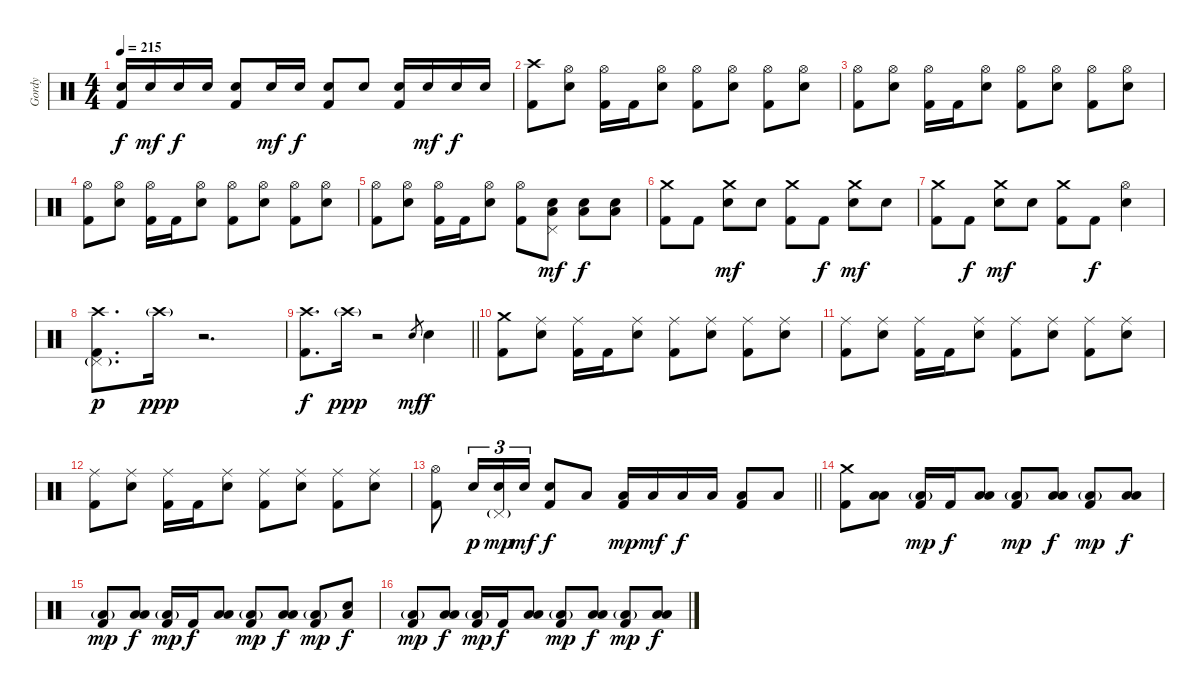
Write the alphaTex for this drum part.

\track ("Gordy" "Gordy") {instrument percussion}
\staff {score}
\articulation defaults
\ts (4 4)
\tempo 215
\clef neutral
\ks c
("Electric Snare (hit)" "Kick (hit) 2").16{dy f} "Electric Snare (hit)".16{dy mf} "Electric Snare (hit)".16{dy f} "Electric Snare (hit)".16 ("Electric Snare (hit)" "Kick (hit) 2").8 "Electric Snare (hit)".16{dy mf} "Electric Snare (hit)".16{dy f} ("Electric Snare (hit)" "Kick (hit) 2").8 "Electric Snare (hit)".8 ("Electric Snare (hit)" "Kick (hit) 2").16 "Electric Snare (hit)".16{dy mf} "Electric Snare (hit)".16{dy f} "Electric Snare (hit)".16 |
("Crash high (hit)" "Kick (hit) 2").8 ("Hi-Hat (open)" "Electric Snare (hit)").8 ("Hi-Hat (open)" "Kick (hit) 2").16 "Kick (hit) 2".16 ("Hi-Hat (open)" "Electric Snare (hit)").8 ("Hi-Hat (open)" "Kick (hit) 2").8 ("Hi-Hat (open)" "Electric Snare (hit)").8 ("Hi-Hat (open)" "Kick (hit) 2").8 ("Hi-Hat (open)" "Electric Snare (hit)").8 |
("Hi-Hat (open)" "Kick (hit) 2").8 ("Hi-Hat (open)" "Electric Snare (hit)").8 ("Hi-Hat (open)" "Kick (hit) 2").16 "Kick (hit) 2".16 ("Hi-Hat (open)" "Electric Snare (hit)").8 ("Hi-Hat (open)" "Kick (hit) 2").8 ("Hi-Hat (open)" "Electric Snare (hit)").8 ("Hi-Hat (open)" "Kick (hit) 2").8 ("Hi-Hat (open)" "Electric Snare (hit)").8 |
("Hi-Hat (open)" "Kick (hit) 2").8 ("Hi-Hat (open)" "Electric Snare (hit)").8 ("Hi-Hat (open)" "Kick (hit) 2").16 "Kick (hit) 2".16 ("Hi-Hat (open)" "Electric Snare (hit)").8 ("Hi-Hat (open)" "Kick (hit) 2").8 ("Hi-Hat (open)" "Electric Snare (hit)").8 ("Hi-Hat (open)" "Kick (hit) 2").8 ("Hi-Hat (open)" "Electric Snare (hit)").8 |
("Hi-Hat (open)" "Kick (hit) 2").8 ("Hi-Hat (open)" "Electric Snare (hit)").8 ("Hi-Hat (open)" "Kick (hit) 2").16 "Kick (hit) 2".16 ("Hi-Hat (open)" "Electric Snare (hit)").8 ("Hi-Hat (open)" "Kick (hit) 2").8 ("Pedal Hi-Hat (hit)" "Electric Snare (hit)" "Low Floor Tom (hit)").8{dy mf} ("Electric Snare (hit)" "Low Floor Tom (hit)").8{dy f} ("Electric Snare (hit)" "Low Floor Tom (hit)").8 |
("Crash medium (hit)" "Kick (hit) 2").8 "Kick (hit) 2".8 ("Crash medium (hit)" "Electric Snare (hit)").8{dy mf} "Electric Snare (hit)".8 ("Crash medium (hit)" "Kick (hit) 2").8 "Kick (hit) 2".8{dy f} ("Crash medium (hit)" "Electric Snare (hit)").8{dy mf} "Electric Snare (hit)".8 |
("Crash medium (hit)" "Kick (hit) 2").8 "Kick (hit) 2".8{dy f} ("Crash medium (hit)" "Electric Snare (hit)").8{dy mf} "Electric Snare (hit)".8 ("Crash medium (hit)" "Kick (hit) 2").8 "Kick (hit) 2".8{dy f} ("Hi-Hat (open)" "Electric Snare (hit)").4 |
("Pedal Hi-Hat (hit)"{g} "Crash high (hit)" "Kick (hit) 2").8{d dy p} "Crash high (hit)"{g}.16{dy ppp} r.2{d} |
\barLineRight lightlight
("Crash high (hit)" "Kick (hit) 2").8{d dy f} "Crash high (hit)"{g}.16{dy ppp} r.2 "Electric Snare (hit)".8{gr dy mf} "Electric Snare (hit)".4{dy f} |
\section ("" "")
("Crash medium (hit)" "Kick (hit) 2").8 ("Ride (middle)" "Electric Snare (hit)").8 ("Ride (middle)" "Kick (hit) 2").16 "Kick (hit) 2".16 ("Ride (middle)" "Electric Snare (hit)").8 ("Ride (middle)" "Kick (hit) 2").8 ("Ride (middle)" "Electric Snare (hit)").8 ("Ride (middle)" "Kick (hit) 2").8 ("Ride (middle)" "Electric Snare (hit)").8 |
("Ride (middle)" "Kick (hit) 2").8 ("Ride (middle)" "Electric Snare (hit)").8 ("Ride (middle)" "Kick (hit) 2").16 "Kick (hit) 2".16 ("Ride (middle)" "Electric Snare (hit)").8 ("Ride (middle)" "Kick (hit) 2").8 ("Ride (middle)" "Electric Snare (hit)").8 ("Ride (middle)" "Kick (hit) 2").8 ("Ride (middle)" "Electric Snare (hit)").8 |
("Ride (middle)" "Kick (hit) 2").8 ("Ride (middle)" "Electric Snare (hit)").8 ("Ride (middle)" "Kick (hit) 2").16 "Kick (hit) 2".16 ("Ride (middle)" "Electric Snare (hit)").8 ("Ride (middle)" "Kick (hit) 2").8 ("Ride (middle)" "Electric Snare (hit)").8 ("Ride (middle)" "Kick (hit) 2").8 ("Ride (middle)" "Electric Snare (hit)").8 |
\barLineRight lightlight
("Hi-Hat (open)" "Kick (hit) 2").8 "Electric Snare (hit)".16{tu (3 2) dy p} ("Pedal Hi-Hat (hit)"{g} "Electric Snare (hit)").16{tu (3 2) dy mp} "Electric Snare (hit)".16{tu (3 2) dy mf} ("Electric Snare (hit)" "Kick (hit) 2").8{dy f} "Low Tom (hit)".8 ("Low Tom (hit)" "Kick (hit) 2").16{dy mp} "Low Tom (hit)".16{dy mf} "Low Tom (hit)".16{dy f} "Low Tom (hit)".16 ("Low Floor Tom (hit)" "Kick (hit) 2").8 "Low Floor Tom (hit)".8 |
\section ("" "")
("Crash medium (hit)" "Kick (hit) 2").8 ("Low Tom (hit)" "Low Floor Tom (hit)").8 ("Low Floor Tom (hit)"{g} "Kick (hit) 2").16{dy mp} "Kick (hit) 2".16{dy f} ("Low Tom (hit)" "Low Floor Tom (hit)").8 ("Low Floor Tom (hit)"{g} "Kick (hit) 2").8{dy mp} ("Low Tom (hit)" "Low Floor Tom (hit)").8{dy f} ("Low Floor Tom (hit)"{g} "Kick (hit) 2").8{dy mp} ("Low Tom (hit)" "Low Floor Tom (hit)").8{dy f} |
("Low Floor Tom (hit)"{g} "Kick (hit) 2").8{dy mp} ("Low Tom (hit)" "Low Floor Tom (hit)").8{dy f} ("Low Floor Tom (hit)"{g} "Kick (hit) 2").16{dy mp} "Kick (hit) 2".16{dy f} ("Low Tom (hit)" "Low Floor Tom (hit)").8 ("Low Floor Tom (hit)"{g} "Kick (hit) 2").8{dy mp} ("Low Tom (hit)" "Low Floor Tom (hit)").8{dy f} ("Low Floor Tom (hit)"{g} "Kick (hit) 2").8{dy mp} ("Electric Snare (hit)" "Low Floor Tom (hit)").8{dy f} |
("Low Floor Tom (hit)"{g} "Kick (hit) 2").8{dy mp} ("Low Tom (hit)" "Low Floor Tom (hit)").8{dy f} ("Low Floor Tom (hit)"{g} "Kick (hit) 2").16{dy mp} "Kick (hit) 2".16{dy f} ("Low Tom (hit)" "Low Floor Tom (hit)").8 ("Low Floor Tom (hit)"{g} "Kick (hit) 2").8{dy mp} ("Low Tom (hit)" "Low Floor Tom (hit)").8{dy f} ("Low Floor Tom (hit)"{g} "Kick (hit) 2").8{dy mp} ("Low Tom (hit)" "Low Floor Tom (hit)").8{dy f}
